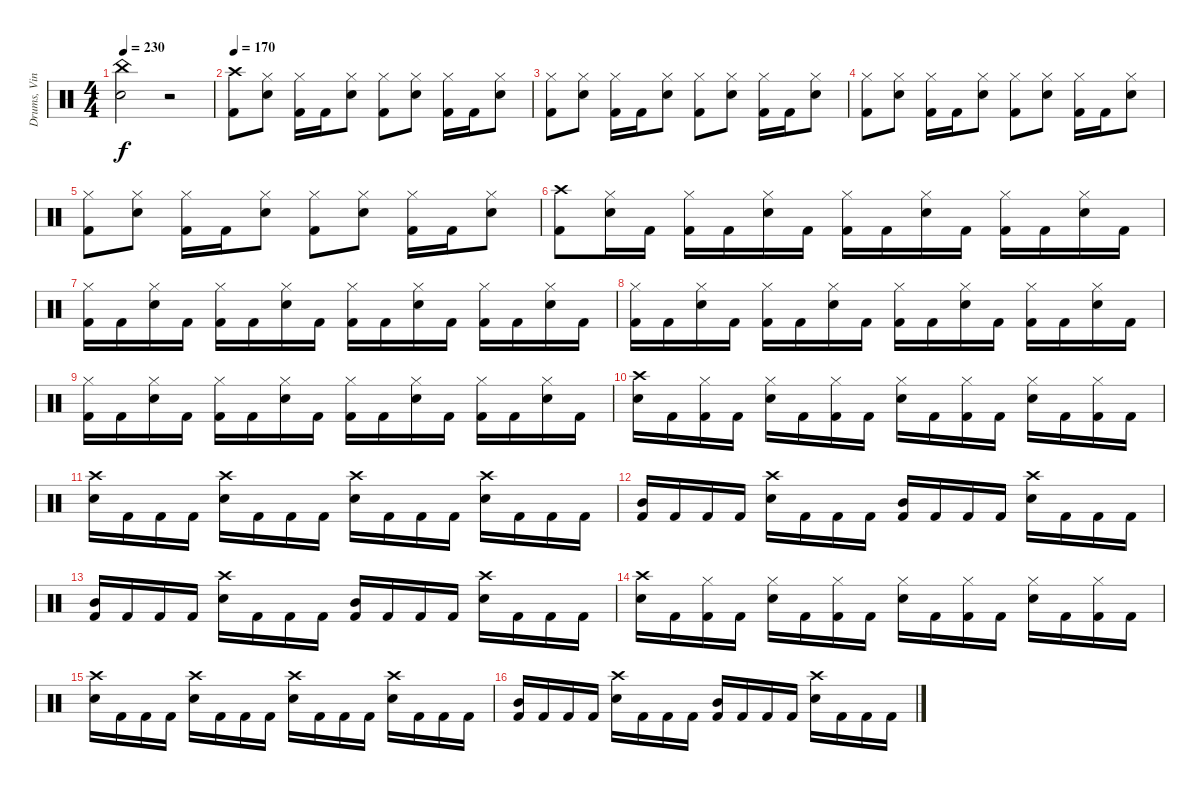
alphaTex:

\track ("Drums, Vinnie" "Drums, Vin") {instrument percussion}
\staff {score}
\articulation defaults
\ts (4 4)
\tempo 230
\clef neutral
\ks c
("China (hit)" "Electric Snare (hit)").2{dy f} r.2 |
\tempo 170
("Crash high (hit)" "Kick (hit) 2").8 ("Hi-Hat (closed)" "Electric Snare (hit)").8 ("Hi-Hat (closed)" "Kick (hit) 2").16 "Kick (hit) 2".16 ("Hi-Hat (closed)" "Electric Snare (hit)").8 ("Hi-Hat (closed)" "Kick (hit) 2").8 ("Hi-Hat (closed)" "Electric Snare (hit)").8 ("Hi-Hat (closed)" "Kick (hit) 2").16 "Kick (hit) 2".16 ("Hi-Hat (closed)" "Electric Snare (hit)").8 |
("Hi-Hat (closed)" "Kick (hit) 2").8 ("Hi-Hat (closed)" "Electric Snare (hit)").8 ("Hi-Hat (closed)" "Kick (hit) 2").16 "Kick (hit) 2".16 ("Hi-Hat (closed)" "Electric Snare (hit)").8 ("Hi-Hat (closed)" "Kick (hit) 2").8 ("Hi-Hat (closed)" "Electric Snare (hit)").8 ("Hi-Hat (closed)" "Kick (hit) 2").16 "Kick (hit) 2".16 ("Hi-Hat (closed)" "Electric Snare (hit)").8 |
("Hi-Hat (closed)" "Kick (hit) 2").8 ("Hi-Hat (closed)" "Electric Snare (hit)").8 ("Hi-Hat (closed)" "Kick (hit) 2").16 "Kick (hit) 2".16 ("Hi-Hat (closed)" "Electric Snare (hit)").8 ("Hi-Hat (closed)" "Kick (hit) 2").8 ("Hi-Hat (closed)" "Electric Snare (hit)").8 ("Hi-Hat (closed)" "Kick (hit) 2").16 "Kick (hit) 2".16 ("Hi-Hat (closed)" "Electric Snare (hit)").8 |
("Hi-Hat (closed)" "Kick (hit) 2").8 ("Hi-Hat (closed)" "Electric Snare (hit)").8 ("Hi-Hat (closed)" "Kick (hit) 2").16 "Kick (hit) 2".16 ("Hi-Hat (closed)" "Electric Snare (hit)").8 ("Hi-Hat (closed)" "Kick (hit) 2").8 ("Hi-Hat (closed)" "Electric Snare (hit)").8 ("Hi-Hat (closed)" "Kick (hit) 2").16 "Kick (hit) 2".16 ("Hi-Hat (closed)" "Electric Snare (hit)").8 |
("Crash high (hit)" "Kick (hit) 2").8 ("Hi-Hat (closed)" "Electric Snare (hit)").16 "Kick (hit) 2".16 ("Hi-Hat (closed)" "Kick (hit) 2").16 "Kick (hit) 2".16 ("Hi-Hat (closed)" "Electric Snare (hit)").16 "Kick (hit) 2".16 ("Hi-Hat (closed)" "Kick (hit) 2").16 "Kick (hit) 2".16 ("Hi-Hat (closed)" "Electric Snare (hit)").16 "Kick (hit) 2".16 ("Hi-Hat (closed)" "Kick (hit) 2").16 "Kick (hit) 2".16 ("Hi-Hat (closed)" "Electric Snare (hit)").16 "Kick (hit) 2".16 |
("Hi-Hat (closed)" "Kick (hit) 2").16 "Kick (hit) 2".16 ("Hi-Hat (closed)" "Electric Snare (hit)").16 "Kick (hit) 2".16 ("Hi-Hat (closed)" "Kick (hit) 2").16 "Kick (hit) 2".16 ("Hi-Hat (closed)" "Electric Snare (hit)").16 "Kick (hit) 2".16 ("Hi-Hat (closed)" "Kick (hit) 2").16 "Kick (hit) 2".16 ("Hi-Hat (closed)" "Electric Snare (hit)").16 "Kick (hit) 2".16 ("Hi-Hat (closed)" "Kick (hit) 2").16 "Kick (hit) 2".16 ("Hi-Hat (closed)" "Electric Snare (hit)").16 "Kick (hit) 2".16 |
("Hi-Hat (closed)" "Kick (hit) 2").16 "Kick (hit) 2".16 ("Hi-Hat (closed)" "Electric Snare (hit)").16 "Kick (hit) 2".16 ("Hi-Hat (closed)" "Kick (hit) 2").16 "Kick (hit) 2".16 ("Hi-Hat (closed)" "Electric Snare (hit)").16 "Kick (hit) 2".16 ("Hi-Hat (closed)" "Kick (hit) 2").16 "Kick (hit) 2".16 ("Hi-Hat (closed)" "Electric Snare (hit)").16 "Kick (hit) 2".16 ("Hi-Hat (closed)" "Kick (hit) 2").16 "Kick (hit) 2".16 ("Hi-Hat (closed)" "Electric Snare (hit)").16 "Kick (hit) 2".16 |
("Hi-Hat (closed)" "Kick (hit) 2").16 "Kick (hit) 2".16 ("Hi-Hat (closed)" "Electric Snare (hit)").16 "Kick (hit) 2".16 ("Hi-Hat (closed)" "Kick (hit) 2").16 "Kick (hit) 2".16 ("Hi-Hat (closed)" "Electric Snare (hit)").16 "Kick (hit) 2".16 ("Hi-Hat (closed)" "Kick (hit) 2").16 "Kick (hit) 2".16 ("Hi-Hat (closed)" "Electric Snare (hit)").16 "Kick (hit) 2".16 ("Hi-Hat (closed)" "Kick (hit) 2").16 "Kick (hit) 2".16 ("Hi-Hat (closed)" "Electric Snare (hit)").16 "Kick (hit) 2".16 |
("Crash high (hit)" "Electric Snare (hit)").16 "Kick (hit) 2".16 ("Hi-Hat (closed)" "Kick (hit) 2").16 "Kick (hit) 2".16 ("Hi-Hat (closed)" "Electric Snare (hit)").16 "Kick (hit) 2".16 ("Hi-Hat (closed)" "Kick (hit) 2").16 "Kick (hit) 2".16 ("Hi-Hat (closed)" "Electric Snare (hit)").16 "Kick (hit) 2".16 ("Hi-Hat (closed)" "Kick (hit) 2").16 "Kick (hit) 2".16 ("Hi-Hat (closed)" "Electric Snare (hit)").16 "Kick (hit) 2".16 ("Hi-Hat (closed)" "Kick (hit) 2").16 "Kick (hit) 2".16 |
("Crash high (hit)" "Electric Snare (hit)").16 "Kick (hit) 2".16 "Kick (hit) 2".16 "Kick (hit) 2".16 ("Crash high (hit)" "Electric Snare (hit)").16 "Kick (hit) 2".16 "Kick (hit) 2".16 "Kick (hit) 2".16 ("Crash high (hit)" "Electric Snare (hit)").16 "Kick (hit) 2".16 "Kick (hit) 2".16 "Kick (hit) 2".16 ("Crash high (hit)" "Electric Snare (hit)").16 "Kick (hit) 2".16 "Kick (hit) 2".16 "Kick (hit) 2".16 |
("Mid Tom (hit)" "Kick (hit) 2").16 "Kick (hit) 2".16 "Kick (hit) 2".16 "Kick (hit) 2".16 ("Crash high (hit)" "Electric Snare (hit)").16 "Kick (hit) 2".16 "Kick (hit) 2".16 "Kick (hit) 2".16 ("Mid Tom (hit)" "Kick (hit) 2").16 "Kick (hit) 2".16 "Kick (hit) 2".16 "Kick (hit) 2".16 ("Crash high (hit)" "Electric Snare (hit)").16 "Kick (hit) 2".16 "Kick (hit) 2".16 "Kick (hit) 2".16 |
("Mid Tom (hit)" "Kick (hit) 2").16 "Kick (hit) 2".16 "Kick (hit) 2".16 "Kick (hit) 2".16 ("Crash high (hit)" "Electric Snare (hit)").16 "Kick (hit) 2".16 "Kick (hit) 2".16 "Kick (hit) 2".16 ("Mid Tom (hit)" "Kick (hit) 2").16 "Kick (hit) 2".16 "Kick (hit) 2".16 "Kick (hit) 2".16 ("Crash high (hit)" "Electric Snare (hit)").16 "Kick (hit) 2".16 "Kick (hit) 2".16 "Kick (hit) 2".16 |
("Crash high (hit)" "Electric Snare (hit)").16 "Kick (hit) 2".16 ("Hi-Hat (closed)" "Kick (hit) 2").16 "Kick (hit) 2".16 ("Hi-Hat (closed)" "Electric Snare (hit)").16 "Kick (hit) 2".16 ("Hi-Hat (closed)" "Kick (hit) 2").16 "Kick (hit) 2".16 ("Hi-Hat (closed)" "Electric Snare (hit)").16 "Kick (hit) 2".16 ("Hi-Hat (closed)" "Kick (hit) 2").16 "Kick (hit) 2".16 ("Hi-Hat (closed)" "Electric Snare (hit)").16 "Kick (hit) 2".16 ("Hi-Hat (closed)" "Kick (hit) 2").16 "Kick (hit) 2".16 |
("Crash high (hit)" "Electric Snare (hit)").16 "Kick (hit) 2".16 "Kick (hit) 2".16 "Kick (hit) 2".16 ("Crash high (hit)" "Electric Snare (hit)").16 "Kick (hit) 2".16 "Kick (hit) 2".16 "Kick (hit) 2".16 ("Crash high (hit)" "Electric Snare (hit)").16 "Kick (hit) 2".16 "Kick (hit) 2".16 "Kick (hit) 2".16 ("Crash high (hit)" "Electric Snare (hit)").16 "Kick (hit) 2".16 "Kick (hit) 2".16 "Kick (hit) 2".16 |
("Mid Tom (hit)" "Kick (hit) 2").16 "Kick (hit) 2".16 "Kick (hit) 2".16 "Kick (hit) 2".16 ("Crash high (hit)" "Electric Snare (hit)").16 "Kick (hit) 2".16 "Kick (hit) 2".16 "Kick (hit) 2".16 ("Mid Tom (hit)" "Kick (hit) 2").16 "Kick (hit) 2".16 "Kick (hit) 2".16 "Kick (hit) 2".16 ("Crash high (hit)" "Electric Snare (hit)").16 "Kick (hit) 2".16 "Kick (hit) 2".16 "Kick (hit) 2".16
